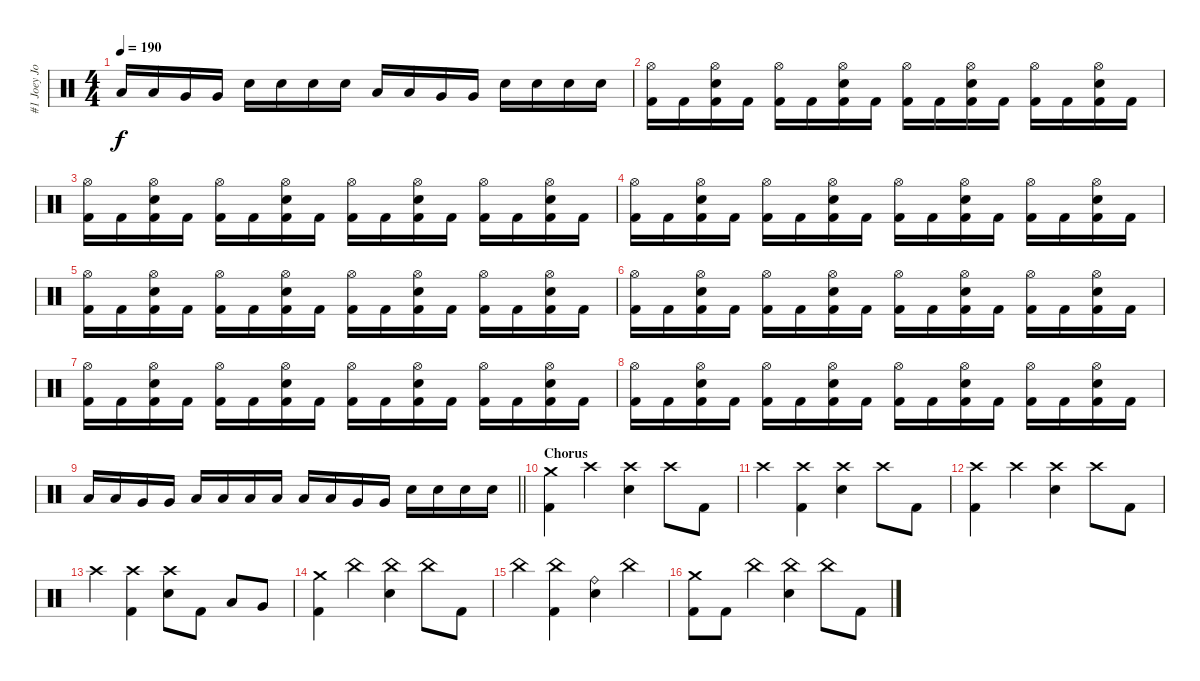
\track ("#1 Joey Jordison" "#1 Joey Jo") {instrument percussion}
\staff {score}
\articulation defaults
\ts (4 4)
\tempo 190
\clef neutral
\ks c "Low Tom (hit)".16{dy f} "Low Tom (hit)".16 "Very Low Tom (hit)".16 "Very Low Tom (hit)".16 "Electric Snare (hit)".16 "Electric Snare (hit)".16 "Electric Snare (hit)".16 "Electric Snare (hit)".16 "Low Tom (hit)".16 "Low Tom (hit)".16 "Very Low Tom (hit)".16 "Very Low Tom (hit)".16 "Electric Snare (hit)".16 "Electric Snare (hit)".16 "Electric Snare (hit)".16 "Electric Snare (hit)".16
|
("Hi-Hat (open)" "Kick (hit) 2").16 "Kick (hit) 2".16 ("Hi-Hat (open)" "Electric Snare (hit)" "Kick (hit) 2").16 "Kick (hit) 2".16 ("Hi-Hat (open)" "Kick (hit) 2").16 "Kick (hit) 2".16 ("Hi-Hat (open)" "Electric Snare (hit)" "Kick (hit) 2").16 "Kick (hit) 2".16 ("Hi-Hat (open)" "Kick (hit) 2").16 "Kick (hit) 2".16 ("Hi-Hat (open)" "Electric Snare (hit)" "Kick (hit) 2").16 "Kick (hit) 2".16 ("Hi-Hat (open)" "Kick (hit) 2").16 "Kick (hit) 2".16 ("Hi-Hat (open)" "Electric Snare (hit)" "Kick (hit) 2").16 "Kick (hit) 2".16 |
("Hi-Hat (open)" "Kick (hit) 2").16 "Kick (hit) 2".16 ("Hi-Hat (open)" "Electric Snare (hit)" "Kick (hit) 2").16 "Kick (hit) 2".16 ("Hi-Hat (open)" "Kick (hit) 2").16 "Kick (hit) 2".16 ("Hi-Hat (open)" "Electric Snare (hit)" "Kick (hit) 2").16 "Kick (hit) 2".16 ("Hi-Hat (open)" "Kick (hit) 2").16 "Kick (hit) 2".16 ("Hi-Hat (open)" "Electric Snare (hit)" "Kick (hit) 2").16 "Kick (hit) 2".16 ("Hi-Hat (open)" "Kick (hit) 2").16 "Kick (hit) 2".16 ("Hi-Hat (open)" "Electric Snare (hit)" "Kick (hit) 2").16 "Kick (hit) 2".16 |
("Hi-Hat (open)" "Kick (hit) 2").16 "Kick (hit) 2".16 ("Hi-Hat (open)" "Electric Snare (hit)" "Kick (hit) 2").16 "Kick (hit) 2".16 ("Hi-Hat (open)" "Kick (hit) 2").16 "Kick (hit) 2".16 ("Hi-Hat (open)" "Electric Snare (hit)" "Kick (hit) 2").16 "Kick (hit) 2".16 ("Hi-Hat (open)" "Kick (hit) 2").16 "Kick (hit) 2".16 ("Hi-Hat (open)" "Electric Snare (hit)" "Kick (hit) 2").16 "Kick (hit) 2".16 ("Hi-Hat (open)" "Kick (hit) 2").16 "Kick (hit) 2".16 ("Hi-Hat (open)" "Electric Snare (hit)" "Kick (hit) 2").16 "Kick (hit) 2".16 |
("Hi-Hat (open)" "Kick (hit) 2").16 "Kick (hit) 2".16 ("Hi-Hat (open)" "Electric Snare (hit)" "Kick (hit) 2").16 "Kick (hit) 2".16 ("Hi-Hat (open)" "Kick (hit) 2").16 "Kick (hit) 2".16 ("Hi-Hat (open)" "Electric Snare (hit)" "Kick (hit) 2").16 "Kick (hit) 2".16 ("Hi-Hat (open)" "Kick (hit) 2").16 "Kick (hit) 2".16 ("Hi-Hat (open)" "Electric Snare (hit)" "Kick (hit) 2").16 "Kick (hit) 2".16 ("Hi-Hat (open)" "Kick (hit) 2").16 "Kick (hit) 2".16 ("Hi-Hat (open)" "Electric Snare (hit)" "Kick (hit) 2").16 "Kick (hit) 2".16 |
("Hi-Hat (open)" "Kick (hit) 2").16 "Kick (hit) 2".16 ("Hi-Hat (open)" "Electric Snare (hit)" "Kick (hit) 2").16 "Kick (hit) 2".16 ("Hi-Hat (open)" "Kick (hit) 2").16 "Kick (hit) 2".16 ("Hi-Hat (open)" "Electric Snare (hit)" "Kick (hit) 2").16 "Kick (hit) 2".16 ("Hi-Hat (open)" "Kick (hit) 2").16 "Kick (hit) 2".16 ("Hi-Hat (open)" "Electric Snare (hit)" "Kick (hit) 2").16 "Kick (hit) 2".16 ("Hi-Hat (open)" "Kick (hit) 2").16 "Kick (hit) 2".16 ("Hi-Hat (open)" "Electric Snare (hit)" "Kick (hit) 2").16 "Kick (hit) 2".16 |
("Hi-Hat (open)" "Kick (hit) 2").16 "Kick (hit) 2".16 ("Hi-Hat (open)" "Electric Snare (hit)" "Kick (hit) 2").16 "Kick (hit) 2".16 ("Hi-Hat (open)" "Kick (hit) 2").16 "Kick (hit) 2".16 ("Hi-Hat (open)" "Electric Snare (hit)" "Kick (hit) 2").16 "Kick (hit) 2".16 ("Hi-Hat (open)" "Kick (hit) 2").16 "Kick (hit) 2".16 ("Hi-Hat (open)" "Electric Snare (hit)" "Kick (hit) 2").16 "Kick (hit) 2".16 ("Hi-Hat (open)" "Kick (hit) 2").16 "Kick (hit) 2".16 ("Hi-Hat (open)" "Electric Snare (hit)" "Kick (hit) 2").16 "Kick (hit) 2".16 |
("Hi-Hat (open)" "Kick (hit) 2").16 "Kick (hit) 2".16 ("Hi-Hat (open)" "Electric Snare (hit)" "Kick (hit) 2").16 "Kick (hit) 2".16 ("Hi-Hat (open)" "Kick (hit) 2").16 "Kick (hit) 2".16 ("Hi-Hat (open)" "Electric Snare (hit)" "Kick (hit) 2").16 "Kick (hit) 2".16 ("Hi-Hat (open)" "Kick (hit) 2").16 "Kick (hit) 2".16 ("Hi-Hat (open)" "Electric Snare (hit)" "Kick (hit) 2").16 "Kick (hit) 2".16 ("Hi-Hat (open)" "Kick (hit) 2").16 "Kick (hit) 2".16 ("Hi-Hat (open)" "Electric Snare (hit)" "Kick (hit) 2").16 "Kick (hit) 2".16 |
\barLineRight lightlight "Low Tom (hit)".16 "Low Tom (hit)".16 "Very Low Tom (hit)".16 "Very Low Tom (hit)".16 "Low Floor Tom (hit)".16 "Low Floor Tom (hit)".16 "Low Floor Tom (hit)".16 "Low Floor Tom (hit)".16 "Low Tom (hit)".16 "Low Tom (hit)".16 "Very Low Tom (hit)".16 "Very Low Tom (hit)".16 "Electric Snare (hit)".16 "Electric Snare (hit)".16 "Electric Snare (hit)".16 "Electric Snare (hit)".16
|
\section ("" "Chorus")
("Crash medium (hit)" "Kick (hit) 2").4 "Crash high (hit)".4 ("Crash high (hit)" "Electric Snare (hit)").4 "Crash high (hit)".8 "Kick (hit) 2".8 |
"Crash high (hit)".4 ("Crash high (hit)" "Kick (hit) 2").4 ("Crash high (hit)" "Electric Snare (hit)").4 "Crash high (hit)".8 "Kick (hit) 2".8 |
("Crash high (hit)" "Kick (hit) 2").4 "Crash high (hit)".4 ("Crash high (hit)" "Electric Snare (hit)").4 "Crash high (hit)".8 "Kick (hit) 2".8 |
"Crash high (hit)".4 ("Crash high (hit)" "Kick (hit) 2").4 ("Crash high (hit)" "Electric Snare (hit)").8 "Kick (hit) 2".8 "Low Tom (hit)".8 "Very Low Tom (hit)".8 |
("Crash medium (hit)" "Kick (hit) 2").4 "China (hit)".4 ("China (hit)" "Electric Snare (hit)").4 "China (hit)".8 "Kick (hit) 2".8 |
"China (hit)".4 ("China (hit)" "Kick (hit) 2").4 ("Ride (bell)" "Electric Snare (hit)").4 "China (hit)".4 |
("Crash medium (hit)" "Kick (hit) 2").8 "Kick (hit) 2".8 "China (hit)".4 ("China (hit)" "Electric Snare (hit)").4 "China (hit)".8 "Kick (hit) 2".8
